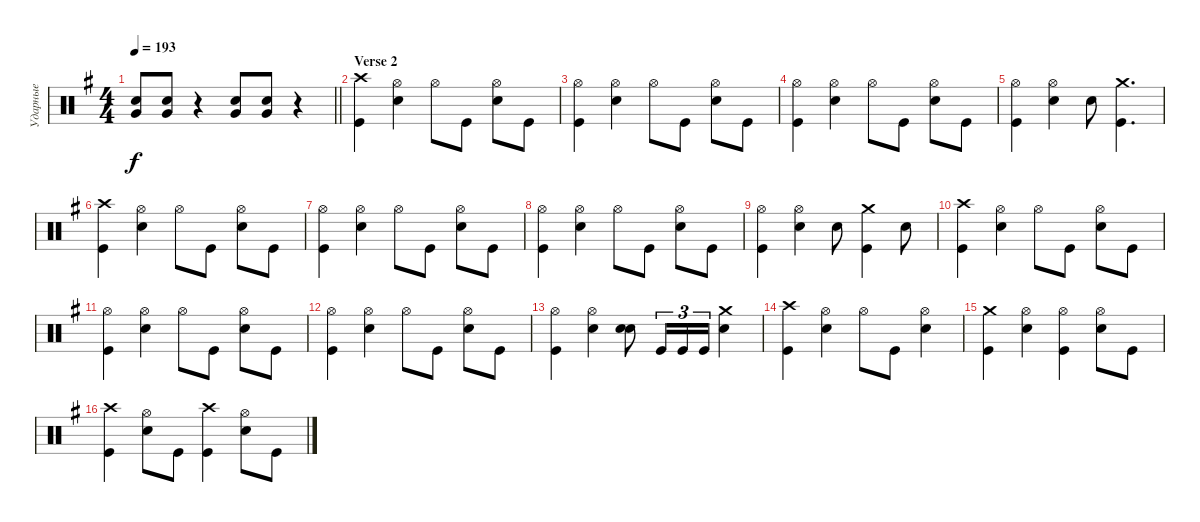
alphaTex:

\track ("Ударные" "Ударные") {instrument percussion}
\staff {score}
\articulation defaults
\ts (4 4)
\tempo 193
\clef neutral
\barLineRight lightlight
\ks eminor
("Snare (hit) 2" "Very Low Tom (hit)").8{dy f} ("Very Low Tom (hit)" "Snare (hit) 2").8 r.4 ("Snare (hit) 2" "Very Low Tom (hit)").8 ("Snare (hit) 2" "Very Low Tom (hit)").8 r.4 |
\section ("" "Verse 2")
("Kick (hit)" "Crash high (hit)").4 ("Snare (hit) 2" "Hi-Hat (open)").4 "Hi-Hat (open)".8 "Kick (hit)".8 ("Snare (hit) 2" "Hi-Hat (open)").8 "Kick (hit)".8 |
("Kick (hit)" "Hi-Hat (open)").4 ("Snare (hit) 2" "Hi-Hat (open)").4 "Hi-Hat (open)".8 "Kick (hit)".8 ("Snare (hit) 2" "Hi-Hat (open)").8 "Kick (hit)".8 |
("Kick (hit)" "Hi-Hat (open)").4 ("Snare (hit) 2" "Hi-Hat (open)").4 "Hi-Hat (open)".8 "Kick (hit)".8 ("Snare (hit) 2" "Hi-Hat (open)").8 "Kick (hit)".8 |
("Kick (hit)" "Hi-Hat (open)").4 ("Snare (hit) 2" "Hi-Hat (open)").4 "Snare (hit) 2".8 ("Kick (hit)" "Crash medium (hit)").4{d} |
("Kick (hit)" "Crash high (hit)").4 ("Snare (hit) 2" "Hi-Hat (open)").4 "Hi-Hat (open)".8 "Kick (hit)".8 ("Snare (hit) 2" "Hi-Hat (open)").8 "Kick (hit)".8 |
("Kick (hit)" "Hi-Hat (open)").4 ("Snare (hit) 2" "Hi-Hat (open)").4 "Hi-Hat (open)".8 "Kick (hit)".8 ("Snare (hit) 2" "Hi-Hat (open)").8 "Kick (hit)".8 |
("Kick (hit)" "Hi-Hat (open)").4 ("Snare (hit) 2" "Hi-Hat (open)").4 "Hi-Hat (open)".8 "Kick (hit)".8 ("Snare (hit) 2" "Hi-Hat (open)").8 "Kick (hit)".8 |
("Kick (hit)" "Hi-Hat (open)").4 ("Snare (hit) 2" "Hi-Hat (open)").4 "Snare (hit) 2".8 ("Kick (hit)" "Crash medium (hit)").4 "Snare (hit) 2".8 |
("Kick (hit)" "Crash high (hit)").4 ("Snare (hit) 2" "Hi-Hat (open)").4 "Hi-Hat (open)".8 "Kick (hit)".8 ("Snare (hit) 2" "Hi-Hat (open)").8 "Kick (hit)".8 |
("Kick (hit)" "Hi-Hat (open)").4 ("Snare (hit) 2" "Hi-Hat (open)").4 "Hi-Hat (open)".8 "Kick (hit)".8 ("Snare (hit) 2" "Hi-Hat (open)").8 "Kick (hit)".8 |
("Kick (hit)" "Hi-Hat (open)").4 ("Snare (hit) 2" "Hi-Hat (open)").4 "Hi-Hat (open)".8 "Kick (hit)".8 ("Snare (hit) 2" "Hi-Hat (open)").8 "Kick (hit)".8 |
("Kick (hit)" "Hi-Hat (open)").4 ("Snare (hit) 2" "Hi-Hat (open)").4 ("Snare (hit) 2" "Snare (hit) 2").8{bd 240} "Kick (hit)".16{tu (3 2)} "Kick (hit)".16{tu (3 2)} "Kick (hit)".16{tu (3 2)} ("Snare (hit) 2" "Crash medium (hit)").4 |
("Kick (hit)" "Crash high (hit)").4 ("Snare (hit) 2" "Hi-Hat (open)").4 "Hi-Hat (open)".8 "Kick (hit)".8 ("Snare (hit) 2" "Hi-Hat (open)").4 |
("Kick (hit)" "Crash medium (hit)").4 ("Snare (hit) 2" "Hi-Hat (open)").4 ("Kick (hit)" "Hi-Hat (open)").4 ("Snare (hit) 2" "Hi-Hat (open)").8 "Kick (hit)".8 |
("Kick (hit)" "Crash high (hit)").4 ("Snare (hit) 2" "Hi-Hat (open)").8 "Kick (hit)".8 ("Kick (hit)" "Crash high (hit)").4 ("Snare (hit) 2" "Hi-Hat (open)").8 "Kick (hit)".8
